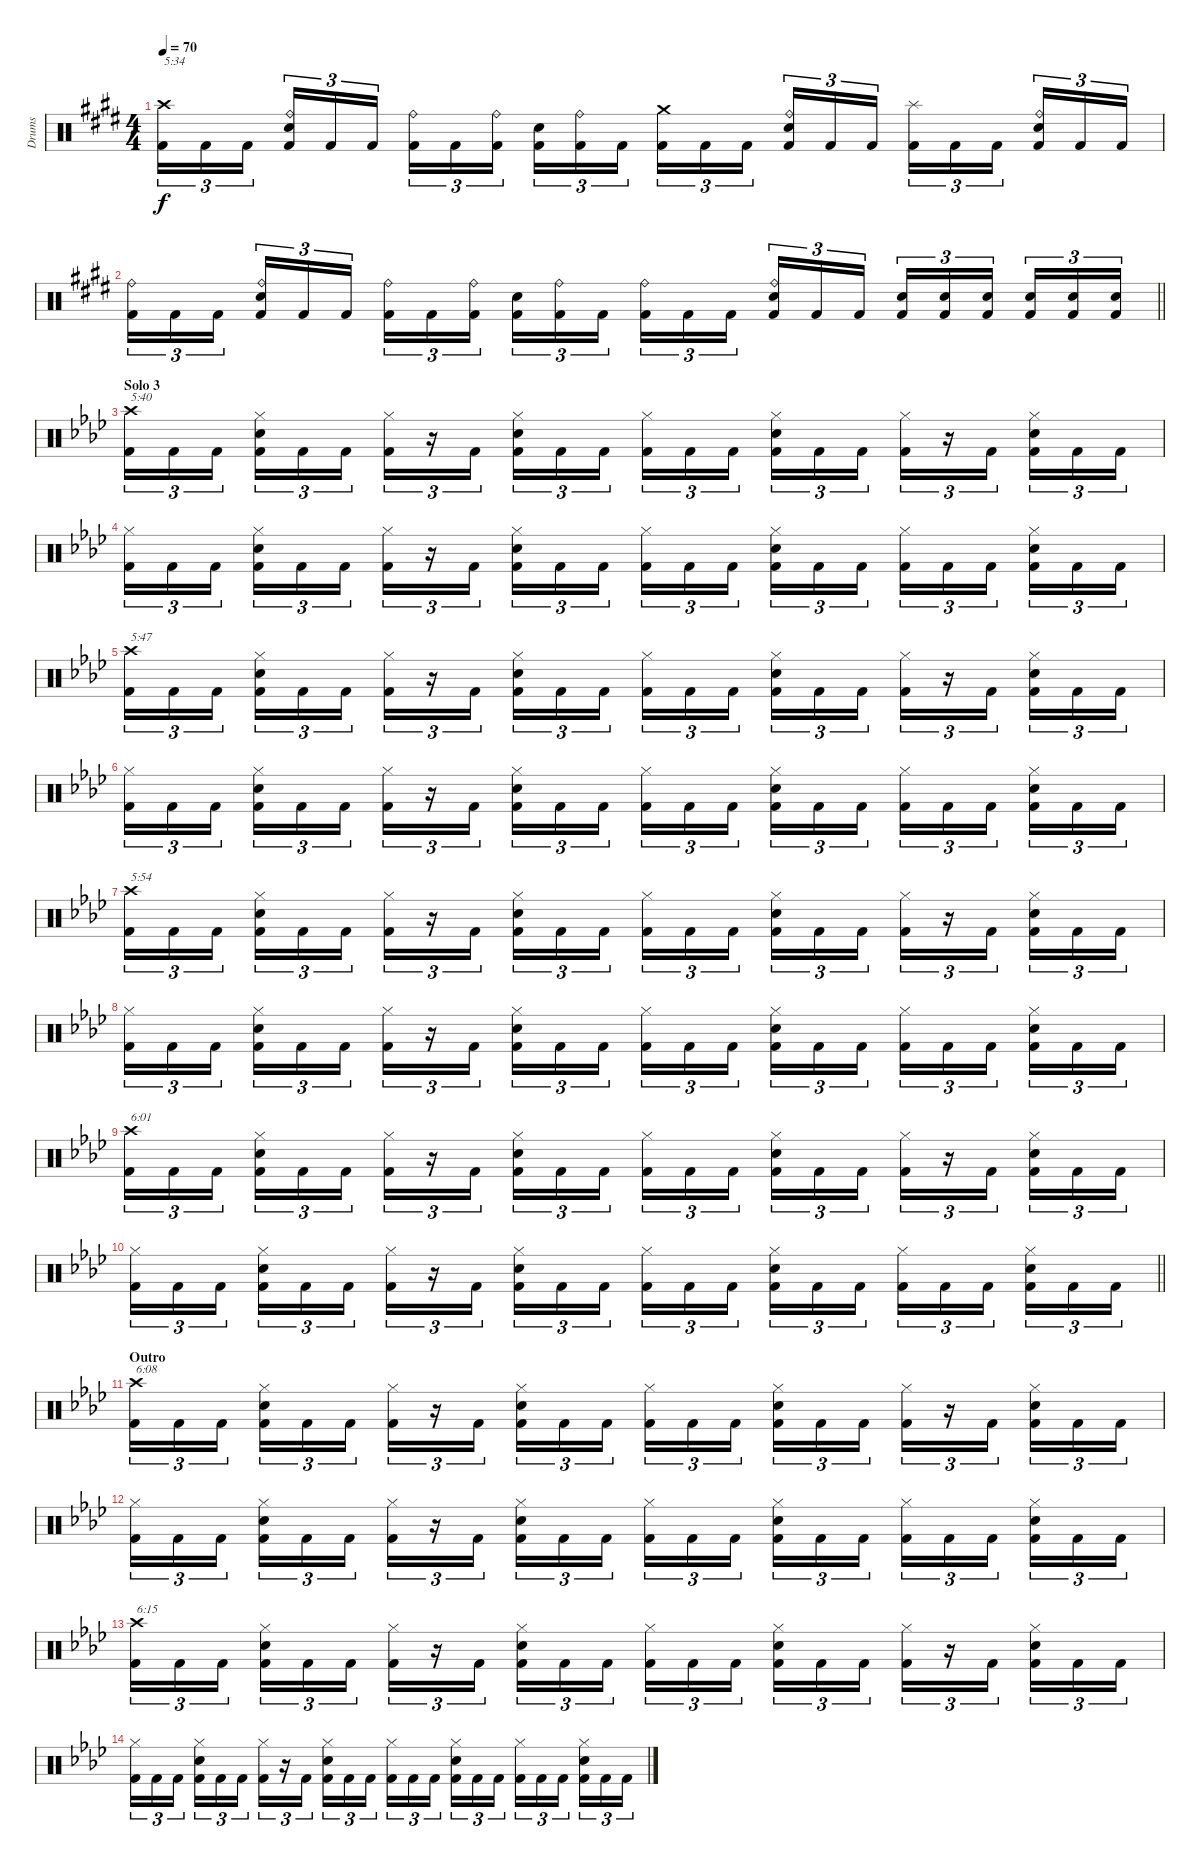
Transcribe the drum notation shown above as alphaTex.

\track ("Drums" "Drums") {instrument percussion}
\staff {score}
\articulation defaults
\ts (4 4)
\tempo 70
\clef neutral
\ks c#minor
("Crash high (hit)" "Kick (hit) 2").16{tu (3 2) txt "5:34" dy f} "Kick (hit) 2".16{tu (3 2)} "Kick (hit) 2".16{tu (3 2) beam splitsecondary} ("Ride (bell)" "Snare (hit) 2" "Kick (hit) 2").16{tu (3 2)} "Kick (hit) 2".16{tu (3 2)} "Kick (hit) 2".16{tu (3 2)} ("Ride (bell)" "Kick (hit) 2").16{tu (3 2)} "Kick (hit) 2".16{tu (3 2)} ("Ride (bell)" "Kick (hit) 2").16{tu (3 2) beam splitsecondary} ("Snare (hit) 2" "Kick (hit) 2").16{tu (3 2)} ("Ride (bell)" "Kick (hit) 2").16{tu (3 2)} "Kick (hit) 2".16{tu (3 2)} ("Crash medium (hit)" "Kick (hit) 2").16{tu (3 2)} "Kick (hit) 2".16{tu (3 2)} "Kick (hit) 2".16{tu (3 2) beam splitsecondary} ("Ride (bell)" "Snare (hit) 2" "Kick (hit) 2").16{tu (3 2)} "Kick (hit) 2".16{tu (3 2)} "Kick (hit) 2".16{tu (3 2)} ("Splash (hit)" "Kick (hit) 2").16{tu (3 2)} "Kick (hit) 2".16{tu (3 2)} "Kick (hit) 2".16{tu (3 2) beam splitsecondary} ("Ride (bell)" "Snare (hit) 2" "Kick (hit) 2").16{tu (3 2)} "Kick (hit) 2".16{tu (3 2)} "Kick (hit) 2".16{tu (3 2)} |
\barLineRight lightlight
("Ride (bell)" "Kick (hit) 2").16{tu (3 2)} "Kick (hit) 2".16{tu (3 2)} "Kick (hit) 2".16{tu (3 2) beam splitsecondary} ("Ride (bell)" "Snare (hit) 2" "Kick (hit) 2").16{tu (3 2)} "Kick (hit) 2".16{tu (3 2)} "Kick (hit) 2".16{tu (3 2)} ("Ride (bell)" "Kick (hit) 2").16{tu (3 2)} "Kick (hit) 2".16{tu (3 2)} ("Ride (bell)" "Kick (hit) 2").16{tu (3 2) beam splitsecondary} ("Snare (hit) 2" "Kick (hit) 2").16{tu (3 2)} ("Ride (bell)" "Kick (hit) 2").16{tu (3 2)} "Kick (hit) 2".16{tu (3 2)} ("Ride (bell)" "Kick (hit) 2").16{tu (3 2)} "Kick (hit) 2".16{tu (3 2)} "Kick (hit) 2".16{tu (3 2) beam splitsecondary} ("Ride (bell)" "Snare (hit) 2" "Kick (hit) 2").16{tu (3 2)} "Kick (hit) 2".16{tu (3 2)} "Kick (hit) 2".16{tu (3 2)} ("Snare (hit) 2" "Kick (hit) 2").16{tu (3 2)} ("Snare (hit) 2" "Kick (hit) 2").16{tu (3 2)} ("Snare (hit) 2" "Kick (hit) 2").16{tu (3 2) beam splitsecondary} ("Snare (hit) 2" "Kick (hit) 2").16{tu (3 2)} ("Snare (hit) 2" "Kick (hit) 2").16{tu (3 2)} ("Snare (hit) 2" "Kick (hit) 2").16{tu (3 2)} |
\section ("" "Solo 3")
\ks fminor
("Crash high (hit)" "Kick (hit) 2").16{tu (3 2) txt "5:40"} "Kick (hit) 2".16{tu (3 2)} "Kick (hit) 2".16{tu (3 2) beam splitsecondary} ("Hi-Hat (closed)" "Snare (hit) 2" "Kick (hit) 2").16{tu (3 2)} "Kick (hit) 2".16{tu (3 2)} "Kick (hit) 2".16{tu (3 2)} ("Hi-Hat (closed)" "Kick (hit) 2").16{tu (3 2)} r.16{tu (3 2)} "Kick (hit) 2".16{tu (3 2) beam splitsecondary} ("Hi-Hat (closed)" "Snare (hit) 2" "Kick (hit) 2").16{tu (3 2)} "Kick (hit) 2".16{tu (3 2)} "Kick (hit) 2".16{tu (3 2)} ("Hi-Hat (closed)" "Kick (hit) 2").16{tu (3 2)} "Kick (hit) 2".16{tu (3 2)} "Kick (hit) 2".16{tu (3 2) beam splitsecondary} ("Hi-Hat (closed)" "Snare (hit) 2" "Kick (hit) 2").16{tu (3 2)} "Kick (hit) 2".16{tu (3 2)} "Kick (hit) 2".16{tu (3 2)} ("Hi-Hat (closed)" "Kick (hit) 2").16{tu (3 2)} r.16{tu (3 2)} "Kick (hit) 2".16{tu (3 2) beam splitsecondary} ("Hi-Hat (closed)" "Snare (hit) 2" "Kick (hit) 2").16{tu (3 2)} "Kick (hit) 2".16{tu (3 2)} "Kick (hit) 2".16{tu (3 2)} |
("Hi-Hat (closed)" "Kick (hit) 2").16{tu (3 2)} "Kick (hit) 2".16{tu (3 2)} "Kick (hit) 2".16{tu (3 2) beam splitsecondary} ("Hi-Hat (closed)" "Snare (hit) 2" "Kick (hit) 2").16{tu (3 2)} "Kick (hit) 2".16{tu (3 2)} "Kick (hit) 2".16{tu (3 2)} ("Hi-Hat (closed)" "Kick (hit) 2").16{tu (3 2)} r.16{tu (3 2)} "Kick (hit) 2".16{tu (3 2) beam splitsecondary} ("Hi-Hat (closed)" "Snare (hit) 2" "Kick (hit) 2").16{tu (3 2)} "Kick (hit) 2".16{tu (3 2)} "Kick (hit) 2".16{tu (3 2)} ("Hi-Hat (closed)" "Kick (hit) 2").16{tu (3 2)} "Kick (hit) 2".16{tu (3 2)} "Kick (hit) 2".16{tu (3 2) beam splitsecondary} ("Hi-Hat (closed)" "Snare (hit) 2" "Kick (hit) 2").16{tu (3 2)} "Kick (hit) 2".16{tu (3 2)} "Kick (hit) 2".16{tu (3 2)} ("Hi-Hat (closed)" "Kick (hit) 2").16{tu (3 2)} "Kick (hit) 2".16{tu (3 2)} "Kick (hit) 2".16{tu (3 2) beam splitsecondary} ("Hi-Hat (closed)" "Snare (hit) 2" "Kick (hit) 2").16{tu (3 2)} "Kick (hit) 2".16{tu (3 2)} "Kick (hit) 2".16{tu (3 2)} |
("Crash high (hit)" "Kick (hit) 2").16{tu (3 2) txt "5:47"} "Kick (hit) 2".16{tu (3 2)} "Kick (hit) 2".16{tu (3 2) beam splitsecondary} ("Hi-Hat (closed)" "Snare (hit) 2" "Kick (hit) 2").16{tu (3 2)} "Kick (hit) 2".16{tu (3 2)} "Kick (hit) 2".16{tu (3 2)} ("Hi-Hat (closed)" "Kick (hit) 2").16{tu (3 2)} r.16{tu (3 2)} "Kick (hit) 2".16{tu (3 2) beam splitsecondary} ("Hi-Hat (closed)" "Snare (hit) 2" "Kick (hit) 2").16{tu (3 2)} "Kick (hit) 2".16{tu (3 2)} "Kick (hit) 2".16{tu (3 2)} ("Hi-Hat (closed)" "Kick (hit) 2").16{tu (3 2)} "Kick (hit) 2".16{tu (3 2)} "Kick (hit) 2".16{tu (3 2) beam splitsecondary} ("Hi-Hat (closed)" "Snare (hit) 2" "Kick (hit) 2").16{tu (3 2)} "Kick (hit) 2".16{tu (3 2)} "Kick (hit) 2".16{tu (3 2)} ("Hi-Hat (closed)" "Kick (hit) 2").16{tu (3 2)} r.16{tu (3 2)} "Kick (hit) 2".16{tu (3 2) beam splitsecondary} ("Hi-Hat (closed)" "Snare (hit) 2" "Kick (hit) 2").16{tu (3 2)} "Kick (hit) 2".16{tu (3 2)} "Kick (hit) 2".16{tu (3 2)} |
("Hi-Hat (closed)" "Kick (hit) 2").16{tu (3 2)} "Kick (hit) 2".16{tu (3 2)} "Kick (hit) 2".16{tu (3 2) beam splitsecondary} ("Hi-Hat (closed)" "Snare (hit) 2" "Kick (hit) 2").16{tu (3 2)} "Kick (hit) 2".16{tu (3 2)} "Kick (hit) 2".16{tu (3 2)} ("Hi-Hat (closed)" "Kick (hit) 2").16{tu (3 2)} r.16{tu (3 2)} "Kick (hit) 2".16{tu (3 2) beam splitsecondary} ("Hi-Hat (closed)" "Snare (hit) 2" "Kick (hit) 2").16{tu (3 2)} "Kick (hit) 2".16{tu (3 2)} "Kick (hit) 2".16{tu (3 2)} ("Hi-Hat (closed)" "Kick (hit) 2").16{tu (3 2)} "Kick (hit) 2".16{tu (3 2)} "Kick (hit) 2".16{tu (3 2) beam splitsecondary} ("Hi-Hat (closed)" "Snare (hit) 2" "Kick (hit) 2").16{tu (3 2)} "Kick (hit) 2".16{tu (3 2)} "Kick (hit) 2".16{tu (3 2)} ("Hi-Hat (closed)" "Kick (hit) 2").16{tu (3 2)} "Kick (hit) 2".16{tu (3 2)} "Kick (hit) 2".16{tu (3 2) beam splitsecondary} ("Hi-Hat (closed)" "Snare (hit) 2" "Kick (hit) 2").16{tu (3 2)} "Kick (hit) 2".16{tu (3 2)} "Kick (hit) 2".16{tu (3 2)} |
("Crash high (hit)" "Kick (hit) 2").16{tu (3 2) txt "5:54"} "Kick (hit) 2".16{tu (3 2)} "Kick (hit) 2".16{tu (3 2) beam splitsecondary} ("Hi-Hat (closed)" "Snare (hit) 2" "Kick (hit) 2").16{tu (3 2)} "Kick (hit) 2".16{tu (3 2)} "Kick (hit) 2".16{tu (3 2)} ("Hi-Hat (closed)" "Kick (hit) 2").16{tu (3 2)} r.16{tu (3 2)} "Kick (hit) 2".16{tu (3 2) beam splitsecondary} ("Hi-Hat (closed)" "Snare (hit) 2" "Kick (hit) 2").16{tu (3 2)} "Kick (hit) 2".16{tu (3 2)} "Kick (hit) 2".16{tu (3 2)} ("Hi-Hat (closed)" "Kick (hit) 2").16{tu (3 2)} "Kick (hit) 2".16{tu (3 2)} "Kick (hit) 2".16{tu (3 2) beam splitsecondary} ("Hi-Hat (closed)" "Snare (hit) 2" "Kick (hit) 2").16{tu (3 2)} "Kick (hit) 2".16{tu (3 2)} "Kick (hit) 2".16{tu (3 2)} ("Hi-Hat (closed)" "Kick (hit) 2").16{tu (3 2)} r.16{tu (3 2)} "Kick (hit) 2".16{tu (3 2) beam splitsecondary} ("Hi-Hat (closed)" "Snare (hit) 2" "Kick (hit) 2").16{tu (3 2)} "Kick (hit) 2".16{tu (3 2)} "Kick (hit) 2".16{tu (3 2)} |
("Hi-Hat (closed)" "Kick (hit) 2").16{tu (3 2)} "Kick (hit) 2".16{tu (3 2)} "Kick (hit) 2".16{tu (3 2) beam splitsecondary} ("Hi-Hat (closed)" "Snare (hit) 2" "Kick (hit) 2").16{tu (3 2)} "Kick (hit) 2".16{tu (3 2)} "Kick (hit) 2".16{tu (3 2)} ("Hi-Hat (closed)" "Kick (hit) 2").16{tu (3 2)} r.16{tu (3 2)} "Kick (hit) 2".16{tu (3 2) beam splitsecondary} ("Hi-Hat (closed)" "Snare (hit) 2" "Kick (hit) 2").16{tu (3 2)} "Kick (hit) 2".16{tu (3 2)} "Kick (hit) 2".16{tu (3 2)} ("Hi-Hat (closed)" "Kick (hit) 2").16{tu (3 2)} "Kick (hit) 2".16{tu (3 2)} "Kick (hit) 2".16{tu (3 2) beam splitsecondary} ("Hi-Hat (closed)" "Snare (hit) 2" "Kick (hit) 2").16{tu (3 2)} "Kick (hit) 2".16{tu (3 2)} "Kick (hit) 2".16{tu (3 2)} ("Hi-Hat (closed)" "Kick (hit) 2").16{tu (3 2)} "Kick (hit) 2".16{tu (3 2)} "Kick (hit) 2".16{tu (3 2) beam splitsecondary} ("Hi-Hat (closed)" "Snare (hit) 2" "Kick (hit) 2").16{tu (3 2)} "Kick (hit) 2".16{tu (3 2)} "Kick (hit) 2".16{tu (3 2)} |
("Crash high (hit)" "Kick (hit) 2").16{tu (3 2) txt "6:01"} "Kick (hit) 2".16{tu (3 2)} "Kick (hit) 2".16{tu (3 2) beam splitsecondary} ("Hi-Hat (closed)" "Snare (hit) 2" "Kick (hit) 2").16{tu (3 2)} "Kick (hit) 2".16{tu (3 2)} "Kick (hit) 2".16{tu (3 2)} ("Hi-Hat (closed)" "Kick (hit) 2").16{tu (3 2)} r.16{tu (3 2)} "Kick (hit) 2".16{tu (3 2) beam splitsecondary} ("Hi-Hat (closed)" "Snare (hit) 2" "Kick (hit) 2").16{tu (3 2)} "Kick (hit) 2".16{tu (3 2)} "Kick (hit) 2".16{tu (3 2)} ("Hi-Hat (closed)" "Kick (hit) 2").16{tu (3 2)} "Kick (hit) 2".16{tu (3 2)} "Kick (hit) 2".16{tu (3 2) beam splitsecondary} ("Hi-Hat (closed)" "Snare (hit) 2" "Kick (hit) 2").16{tu (3 2)} "Kick (hit) 2".16{tu (3 2)} "Kick (hit) 2".16{tu (3 2)} ("Hi-Hat (closed)" "Kick (hit) 2").16{tu (3 2)} r.16{tu (3 2)} "Kick (hit) 2".16{tu (3 2) beam splitsecondary} ("Hi-Hat (closed)" "Snare (hit) 2" "Kick (hit) 2").16{tu (3 2)} "Kick (hit) 2".16{tu (3 2)} "Kick (hit) 2".16{tu (3 2)} |
\barLineRight lightlight
("Hi-Hat (closed)" "Kick (hit) 2").16{tu (3 2)} "Kick (hit) 2".16{tu (3 2)} "Kick (hit) 2".16{tu (3 2) beam splitsecondary} ("Hi-Hat (closed)" "Snare (hit) 2" "Kick (hit) 2").16{tu (3 2)} "Kick (hit) 2".16{tu (3 2)} "Kick (hit) 2".16{tu (3 2)} ("Hi-Hat (closed)" "Kick (hit) 2").16{tu (3 2)} r.16{tu (3 2)} "Kick (hit) 2".16{tu (3 2) beam splitsecondary} ("Hi-Hat (closed)" "Snare (hit) 2" "Kick (hit) 2").16{tu (3 2)} "Kick (hit) 2".16{tu (3 2)} "Kick (hit) 2".16{tu (3 2)} ("Hi-Hat (closed)" "Kick (hit) 2").16{tu (3 2)} "Kick (hit) 2".16{tu (3 2)} "Kick (hit) 2".16{tu (3 2) beam splitsecondary} ("Hi-Hat (closed)" "Snare (hit) 2" "Kick (hit) 2").16{tu (3 2)} "Kick (hit) 2".16{tu (3 2)} "Kick (hit) 2".16{tu (3 2)} ("Hi-Hat (closed)" "Kick (hit) 2").16{tu (3 2)} "Kick (hit) 2".16{tu (3 2)} "Kick (hit) 2".16{tu (3 2) beam splitsecondary} ("Hi-Hat (closed)" "Snare (hit) 2" "Kick (hit) 2").16{tu (3 2)} "Kick (hit) 2".16{tu (3 2)} "Kick (hit) 2".16{tu (3 2)} |
\section ("" "Outro")
("Crash high (hit)" "Kick (hit) 2").16{tu (3 2) txt "6:08"} "Kick (hit) 2".16{tu (3 2)} "Kick (hit) 2".16{tu (3 2) beam splitsecondary} ("Hi-Hat (closed)" "Snare (hit) 2" "Kick (hit) 2").16{tu (3 2)} "Kick (hit) 2".16{tu (3 2)} "Kick (hit) 2".16{tu (3 2)} ("Hi-Hat (closed)" "Kick (hit) 2").16{tu (3 2)} r.16{tu (3 2)} "Kick (hit) 2".16{tu (3 2) beam splitsecondary} ("Hi-Hat (closed)" "Snare (hit) 2" "Kick (hit) 2").16{tu (3 2)} "Kick (hit) 2".16{tu (3 2)} "Kick (hit) 2".16{tu (3 2)} ("Hi-Hat (closed)" "Kick (hit) 2").16{tu (3 2)} "Kick (hit) 2".16{tu (3 2)} "Kick (hit) 2".16{tu (3 2) beam splitsecondary} ("Hi-Hat (closed)" "Snare (hit) 2" "Kick (hit) 2").16{tu (3 2)} "Kick (hit) 2".16{tu (3 2)} "Kick (hit) 2".16{tu (3 2)} ("Hi-Hat (closed)" "Kick (hit) 2").16{tu (3 2)} r.16{tu (3 2)} "Kick (hit) 2".16{tu (3 2) beam splitsecondary} ("Hi-Hat (closed)" "Snare (hit) 2" "Kick (hit) 2").16{tu (3 2)} "Kick (hit) 2".16{tu (3 2)} "Kick (hit) 2".16{tu (3 2)} |
("Hi-Hat (closed)" "Kick (hit) 2").16{tu (3 2)} "Kick (hit) 2".16{tu (3 2)} "Kick (hit) 2".16{tu (3 2) beam splitsecondary} ("Hi-Hat (closed)" "Snare (hit) 2" "Kick (hit) 2").16{tu (3 2)} "Kick (hit) 2".16{tu (3 2)} "Kick (hit) 2".16{tu (3 2)} ("Hi-Hat (closed)" "Kick (hit) 2").16{tu (3 2)} r.16{tu (3 2)} "Kick (hit) 2".16{tu (3 2) beam splitsecondary} ("Hi-Hat (closed)" "Snare (hit) 2" "Kick (hit) 2").16{tu (3 2)} "Kick (hit) 2".16{tu (3 2)} "Kick (hit) 2".16{tu (3 2)} ("Hi-Hat (closed)" "Kick (hit) 2").16{tu (3 2)} "Kick (hit) 2".16{tu (3 2)} "Kick (hit) 2".16{tu (3 2) beam splitsecondary} ("Hi-Hat (closed)" "Snare (hit) 2" "Kick (hit) 2").16{tu (3 2)} "Kick (hit) 2".16{tu (3 2)} "Kick (hit) 2".16{tu (3 2)} ("Hi-Hat (closed)" "Kick (hit) 2").16{tu (3 2)} "Kick (hit) 2".16{tu (3 2)} "Kick (hit) 2".16{tu (3 2) beam splitsecondary} ("Hi-Hat (closed)" "Snare (hit) 2" "Kick (hit) 2").16{tu (3 2)} "Kick (hit) 2".16{tu (3 2)} "Kick (hit) 2".16{tu (3 2)} |
("Crash high (hit)" "Kick (hit) 2").16{tu (3 2) txt "6:15" volume 0} "Kick (hit) 2".16{tu (3 2)} "Kick (hit) 2".16{tu (3 2) beam splitsecondary} ("Hi-Hat (closed)" "Snare (hit) 2" "Kick (hit) 2").16{tu (3 2)} "Kick (hit) 2".16{tu (3 2)} "Kick (hit) 2".16{tu (3 2)} ("Hi-Hat (closed)" "Kick (hit) 2").16{tu (3 2)} r.16{tu (3 2)} "Kick (hit) 2".16{tu (3 2) beam splitsecondary} ("Hi-Hat (closed)" "Snare (hit) 2" "Kick (hit) 2").16{tu (3 2)} "Kick (hit) 2".16{tu (3 2)} "Kick (hit) 2".16{tu (3 2)} ("Hi-Hat (closed)" "Kick (hit) 2").16{tu (3 2)} "Kick (hit) 2".16{tu (3 2)} "Kick (hit) 2".16{tu (3 2) beam splitsecondary} ("Hi-Hat (closed)" "Snare (hit) 2" "Kick (hit) 2").16{tu (3 2)} "Kick (hit) 2".16{tu (3 2)} "Kick (hit) 2".16{tu (3 2)} ("Hi-Hat (closed)" "Kick (hit) 2").16{tu (3 2)} r.16{tu (3 2)} "Kick (hit) 2".16{tu (3 2) beam splitsecondary} ("Hi-Hat (closed)" "Snare (hit) 2" "Kick (hit) 2").16{tu (3 2)} "Kick (hit) 2".16{tu (3 2)} "Kick (hit) 2".16{tu (3 2)} |
("Hi-Hat (closed)" "Kick (hit) 2").16{tu (3 2)} "Kick (hit) 2".16{tu (3 2)} "Kick (hit) 2".16{tu (3 2) beam splitsecondary} ("Hi-Hat (closed)" "Snare (hit) 2" "Kick (hit) 2").16{tu (3 2)} "Kick (hit) 2".16{tu (3 2)} "Kick (hit) 2".16{tu (3 2)} ("Hi-Hat (closed)" "Kick (hit) 2").16{tu (3 2)} r.16{tu (3 2)} "Kick (hit) 2".16{tu (3 2) beam splitsecondary} ("Hi-Hat (closed)" "Snare (hit) 2" "Kick (hit) 2").16{tu (3 2)} "Kick (hit) 2".16{tu (3 2)} "Kick (hit) 2".16{tu (3 2)} ("Hi-Hat (closed)" "Kick (hit) 2").16{tu (3 2)} "Kick (hit) 2".16{tu (3 2)} "Kick (hit) 2".16{tu (3 2) beam splitsecondary} ("Hi-Hat (closed)" "Snare (hit) 2" "Kick (hit) 2").16{tu (3 2)} "Kick (hit) 2".16{tu (3 2)} "Kick (hit) 2".16{tu (3 2)} ("Hi-Hat (closed)" "Kick (hit) 2").16{tu (3 2)} "Kick (hit) 2".16{tu (3 2)} "Kick (hit) 2".16{tu (3 2) beam splitsecondary} ("Hi-Hat (closed)" "Snare (hit) 2" "Kick (hit) 2").16{tu (3 2)} "Kick (hit) 2".16{tu (3 2)} "Kick (hit) 2".16{tu (3 2)}
